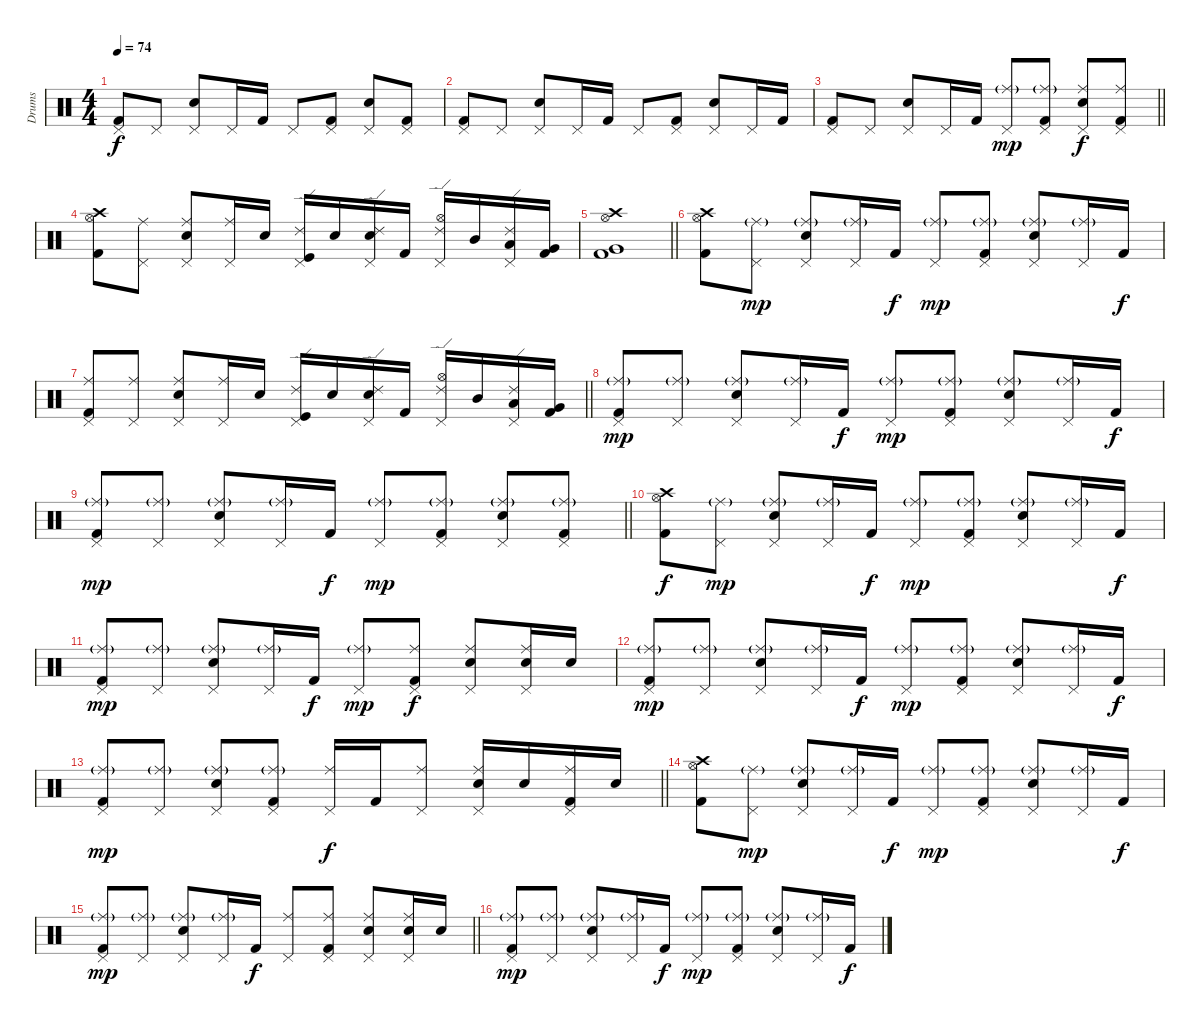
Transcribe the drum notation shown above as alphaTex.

\track ("Drums" "Drums") {instrument percussion}
\staff {score}
\articulation defaults
\ts (4 4)
\tempo 74
\clef neutral
\ks c
("Pedal Hi-Hat (hit)" "Kick (hit) 2").8{dy f} "Pedal Hi-Hat (hit)".8 ("Pedal Hi-Hat (hit)" "Electric Snare (hit)").8 "Pedal Hi-Hat (hit)".16 "Kick (hit) 2".16 "Pedal Hi-Hat (hit)".8 ("Pedal Hi-Hat (hit)" "Kick (hit) 2").8 ("Pedal Hi-Hat (hit)" "Electric Snare (hit)").8 ("Pedal Hi-Hat (hit)" "Kick (hit) 2").8 |
("Pedal Hi-Hat (hit)" "Kick (hit) 2").8 "Pedal Hi-Hat (hit)".8 ("Pedal Hi-Hat (hit)" "Electric Snare (hit)").8 "Pedal Hi-Hat (hit)".16 "Kick (hit) 2".16 "Pedal Hi-Hat (hit)".8 ("Pedal Hi-Hat (hit)" "Kick (hit) 2").8 ("Pedal Hi-Hat (hit)" "Electric Snare (hit)").8 "Pedal Hi-Hat (hit)".16 "Kick (hit) 2".16 |
\barLineRight lightlight
("Pedal Hi-Hat (hit)" "Kick (hit) 2").8 "Pedal Hi-Hat (hit)".8 ("Pedal Hi-Hat (hit)" "Electric Snare (hit)").8 "Pedal Hi-Hat (hit)".16 "Kick (hit) 2".16 ("Pedal Hi-Hat (hit)" "Ride (middle)"{g}).8{dy mp} ("Pedal Hi-Hat (hit)" "Ride (middle)"{g} "Kick (hit) 2").8 ("Pedal Hi-Hat (hit)" "Ride (middle)" "Electric Snare (hit)").8{dy f} ("Pedal Hi-Hat (hit)" "Ride (middle)" "Kick (hit) 2").8 |
("Crash high (hit)" "Hi-Hat (open)" "Kick (hit) 2").8 ("Pedal Hi-Hat (hit)" "Ride (middle)").8 ("Pedal Hi-Hat (hit)" "Ride (middle)" "Electric Snare (hit)").8 ("Pedal Hi-Hat (hit)" "Ride (middle)").16 "Electric Snare (hit)".16 ("Pedal Hi-Hat (hit)" "Ride (edge) 2" "Kick (hit)").16 "Electric Snare (hit)".16 ("Pedal Hi-Hat (hit)" "Ride (edge) 2" "Electric Snare (hit)").16 "Kick (hit) 2".16 ("Pedal Hi-Hat (hit)" "Ride (edge) 2" "Hi-Hat (open)").16 "Mid Tom (hit)".16 ("Pedal Hi-Hat (hit)" "Ride (edge) 2" "Low Tom (hit)").16 ("Very Low Tom (hit)" "Kick (hit) 2").16 |
\barLineRight lightlight
("Hi-Hat (open)" "Crash high (hit)" "Very Low Tom (hit)" "Kick (hit) 2").1 |
("Crash high (hit)" "Hi-Hat (open)" "Kick (hit) 2").8 ("Pedal Hi-Hat (hit)" "Ride (middle)"{g}).8{dy mp} ("Pedal Hi-Hat (hit)" "Ride (middle)"{g} "Electric Snare (hit)").8 ("Pedal Hi-Hat (hit)" "Ride (middle)"{g}).16 "Kick (hit) 2".16{dy f} ("Pedal Hi-Hat (hit)" "Ride (middle)"{g}).8{dy mp} ("Pedal Hi-Hat (hit)" "Ride (middle)"{g} "Kick (hit) 2").8 ("Pedal Hi-Hat (hit)" "Ride (middle)"{g} "Electric Snare (hit)").8 ("Pedal Hi-Hat (hit)" "Ride (middle)"{g}).16 "Kick (hit) 2".16{dy f} |
\barLineRight lightlight
("Pedal Hi-Hat (hit)" "Ride (middle)" "Kick (hit) 2").8 ("Pedal Hi-Hat (hit)" "Ride (middle)").8 ("Pedal Hi-Hat (hit)" "Ride (middle)" "Electric Snare (hit)").8 ("Pedal Hi-Hat (hit)" "Ride (middle)").16 "Electric Snare (hit)".16 ("Pedal Hi-Hat (hit)" "Ride (edge) 2" "Kick (hit)").16 "Electric Snare (hit)".16 ("Pedal Hi-Hat (hit)" "Ride (edge) 2" "Electric Snare (hit)").16 "Kick (hit) 2".16 ("Pedal Hi-Hat (hit)" "Ride (edge) 2" "Hi-Hat (open)").16 "Mid Tom (hit)".16 ("Pedal Hi-Hat (hit)" "Ride (edge) 2" "Low Tom (hit)").16 ("Very Low Tom (hit)" "Kick (hit) 2").16 |
("Pedal Hi-Hat (hit)" "Ride (middle)"{g} "Kick (hit) 2").8{dy mp} ("Pedal Hi-Hat (hit)" "Ride (middle)"{g}).8 ("Pedal Hi-Hat (hit)" "Ride (middle)"{g} "Electric Snare (hit)").8 ("Pedal Hi-Hat (hit)" "Ride (middle)"{g}).16 "Kick (hit) 2".16{dy f} ("Pedal Hi-Hat (hit)" "Ride (middle)"{g}).8{dy mp} ("Pedal Hi-Hat (hit)" "Ride (middle)"{g} "Kick (hit) 2").8 ("Pedal Hi-Hat (hit)" "Ride (middle)"{g} "Electric Snare (hit)").8 ("Pedal Hi-Hat (hit)" "Ride (middle)"{g}).16 "Kick (hit) 2".16{dy f} |
\barLineRight lightlight
("Pedal Hi-Hat (hit)" "Ride (middle)"{g} "Kick (hit) 2").8{dy mp} ("Pedal Hi-Hat (hit)" "Ride (middle)"{g}).8 ("Pedal Hi-Hat (hit)" "Ride (middle)"{g} "Electric Snare (hit)").8 ("Pedal Hi-Hat (hit)" "Ride (middle)"{g}).16 "Kick (hit) 2".16{dy f} ("Pedal Hi-Hat (hit)" "Ride (middle)"{g}).8{dy mp} ("Pedal Hi-Hat (hit)" "Ride (middle)"{g} "Kick (hit) 2").8 ("Pedal Hi-Hat (hit)" "Ride (middle)"{g} "Electric Snare (hit)").8 ("Pedal Hi-Hat (hit)" "Ride (middle)"{g} "Kick (hit) 2").8 |
("Crash high (hit)" "Hi-Hat (open)" "Kick (hit) 2").8{dy f} ("Pedal Hi-Hat (hit)" "Ride (middle)"{g}).8{dy mp} ("Pedal Hi-Hat (hit)" "Ride (middle)"{g} "Electric Snare (hit)").8 ("Pedal Hi-Hat (hit)" "Ride (middle)"{g}).16 "Kick (hit) 2".16{dy f} ("Pedal Hi-Hat (hit)" "Ride (middle)"{g}).8{dy mp} ("Pedal Hi-Hat (hit)" "Ride (middle)"{g} "Kick (hit) 2").8 ("Pedal Hi-Hat (hit)" "Ride (middle)"{g} "Electric Snare (hit)").8 ("Pedal Hi-Hat (hit)" "Ride (middle)"{g}).16 "Kick (hit) 2".16{dy f} |
("Pedal Hi-Hat (hit)" "Ride (middle)"{g} "Kick (hit) 2").8{dy mp} ("Pedal Hi-Hat (hit)" "Ride (middle)"{g}).8 ("Pedal Hi-Hat (hit)" "Ride (middle)"{g} "Electric Snare (hit)").8 ("Pedal Hi-Hat (hit)" "Ride (middle)"{g}).16 "Kick (hit) 2".16{dy f} ("Pedal Hi-Hat (hit)" "Ride (middle)"{g}).8{dy mp} ("Pedal Hi-Hat (hit)" "Ride (middle)" "Kick (hit) 2").8{dy f} ("Pedal Hi-Hat (hit)" "Ride (middle)" "Electric Snare (hit)").8 ("Pedal Hi-Hat (hit)" "Ride (middle)" "Electric Snare (hit)").16 "Electric Snare (hit)".16 |
("Pedal Hi-Hat (hit)" "Ride (middle)"{g} "Kick (hit) 2").8{dy mp} ("Pedal Hi-Hat (hit)" "Ride (middle)"{g}).8 ("Pedal Hi-Hat (hit)" "Ride (middle)"{g} "Electric Snare (hit)").8 ("Pedal Hi-Hat (hit)" "Ride (middle)"{g}).16 "Kick (hit) 2".16{dy f} ("Pedal Hi-Hat (hit)" "Ride (middle)"{g}).8{dy mp} ("Pedal Hi-Hat (hit)" "Ride (middle)"{g} "Kick (hit) 2").8 ("Pedal Hi-Hat (hit)" "Ride (middle)"{g} "Electric Snare (hit)").8 ("Pedal Hi-Hat (hit)" "Ride (middle)"{g}).16 "Kick (hit) 2".16{dy f} |
\barLineRight lightlight
("Pedal Hi-Hat (hit)" "Ride (middle)"{g} "Kick (hit) 2").8{dy mp} ("Pedal Hi-Hat (hit)" "Ride (middle)"{g}).8 ("Pedal Hi-Hat (hit)" "Ride (middle)"{g} "Electric Snare (hit)").8 ("Pedal Hi-Hat (hit)" "Ride (middle)"{g} "Kick (hit) 2").8 ("Pedal Hi-Hat (hit)" "Ride (middle)").16{dy f} "Kick (hit) 2".16 ("Pedal Hi-Hat (hit)" "Ride (middle)").8 ("Pedal Hi-Hat (hit)" "Ride (middle)" "Electric Snare (hit)").16 "Electric Snare (hit)".16 ("Pedal Hi-Hat (hit)" "Ride (middle)" "Kick (hit) 2").16 "Electric Snare (hit)".16 |
("Crash high (hit)" "Hi-Hat (open)" "Kick (hit) 2").8 ("Pedal Hi-Hat (hit)" "Ride (middle)"{g}).8{dy mp} ("Pedal Hi-Hat (hit)" "Ride (middle)"{g} "Electric Snare (hit)").8 ("Pedal Hi-Hat (hit)" "Ride (middle)"{g}).16 "Kick (hit) 2".16{dy f} ("Pedal Hi-Hat (hit)" "Ride (middle)"{g}).8{dy mp} ("Pedal Hi-Hat (hit)" "Ride (middle)"{g} "Kick (hit) 2").8 ("Pedal Hi-Hat (hit)" "Ride (middle)"{g} "Electric Snare (hit)").8 ("Pedal Hi-Hat (hit)" "Ride (middle)"{g}).16 "Kick (hit) 2".16{dy f} |
\barLineRight lightlight
("Pedal Hi-Hat (hit)" "Ride (middle)"{g} "Kick (hit) 2").8{dy mp} ("Pedal Hi-Hat (hit)" "Ride (middle)"{g}).8 ("Pedal Hi-Hat (hit)" "Ride (middle)"{g} "Electric Snare (hit)").8 ("Pedal Hi-Hat (hit)" "Ride (middle)"{g}).16 "Kick (hit) 2".16{dy f} ("Pedal Hi-Hat (hit)" "Ride (middle)").8 ("Pedal Hi-Hat (hit)" "Ride (middle)" "Kick (hit) 2").8 ("Pedal Hi-Hat (hit)" "Ride (middle)" "Electric Snare (hit)").8 ("Pedal Hi-Hat (hit)" "Ride (middle)" "Electric Snare (hit)").16 "Electric Snare (hit)".16 |
("Pedal Hi-Hat (hit)" "Ride (middle)"{g} "Kick (hit) 2").8{dy mp} ("Pedal Hi-Hat (hit)" "Ride (middle)"{g}).8 ("Pedal Hi-Hat (hit)" "Ride (middle)"{g} "Electric Snare (hit)").8 ("Pedal Hi-Hat (hit)" "Ride (middle)"{g}).16 "Kick (hit) 2".16{dy f} ("Pedal Hi-Hat (hit)" "Ride (middle)"{g}).8{dy mp} ("Pedal Hi-Hat (hit)" "Ride (middle)"{g} "Kick (hit) 2").8 ("Pedal Hi-Hat (hit)" "Ride (middle)"{g} "Electric Snare (hit)").8 ("Pedal Hi-Hat (hit)" "Ride (middle)"{g}).16 "Kick (hit) 2".16{dy f}
